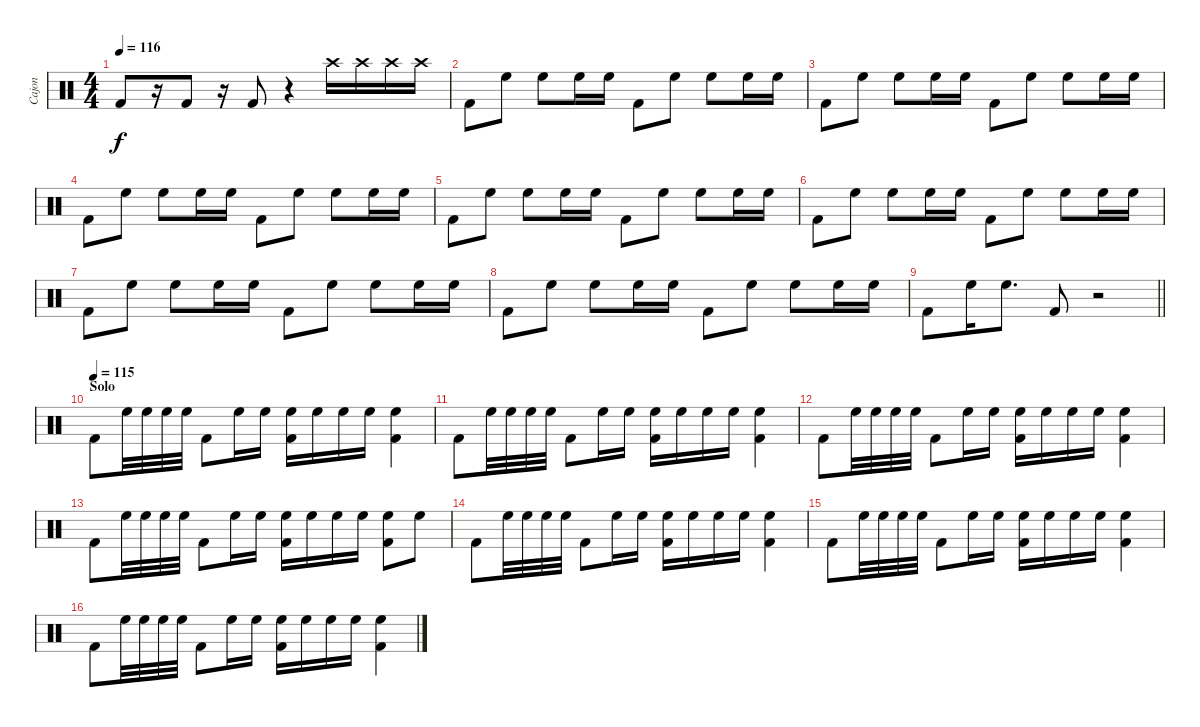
\track ("Cajon" "Cajon") {instrument percussion}
\staff {score}
\articulation defaults
\ts (4 4)
\tempo 116
\clef neutral
\ks c "Kick (hit) 2".8{dy f}
r.16 "Kick (hit) 2".8 r.16 "Kick (hit) 2".8 r.4{volume 0} "Crash high (hit)".16{volume 10} "Crash high (hit)".16 "Crash high (hit)".16 "Crash high (hit)".16 |
"Kick (hit) 2".8 "High Floor Tom (hit)".8 "High Floor Tom (hit)".8 "High Floor Tom (hit)".16 "High Floor Tom (hit)".16 "Kick (hit) 2".8 "High Floor Tom (hit)".8 "High Floor Tom (hit)".8 "High Floor Tom (hit)".16 "High Floor Tom (hit)".16 |
"Kick (hit) 2".8 "High Floor Tom (hit)".8 "High Floor Tom (hit)".8 "High Floor Tom (hit)".16 "High Floor Tom (hit)".16 "Kick (hit) 2".8 "High Floor Tom (hit)".8 "High Floor Tom (hit)".8 "High Floor Tom (hit)".16 "High Floor Tom (hit)".16 |
"Kick (hit) 2".8 "High Floor Tom (hit)".8 "High Floor Tom (hit)".8 "High Floor Tom (hit)".16 "High Floor Tom (hit)".16 "Kick (hit) 2".8 "High Floor Tom (hit)".8 "High Floor Tom (hit)".8 "High Floor Tom (hit)".16 "High Floor Tom (hit)".16 |
"Kick (hit) 2".8 "High Floor Tom (hit)".8 "High Floor Tom (hit)".8 "High Floor Tom (hit)".16 "High Floor Tom (hit)".16 "Kick (hit) 2".8 "High Floor Tom (hit)".8 "High Floor Tom (hit)".8 "High Floor Tom (hit)".16 "High Floor Tom (hit)".16 |
"Kick (hit) 2".8 "High Floor Tom (hit)".8 "High Floor Tom (hit)".8 "High Floor Tom (hit)".16 "High Floor Tom (hit)".16 "Kick (hit) 2".8 "High Floor Tom (hit)".8 "High Floor Tom (hit)".8 "High Floor Tom (hit)".16 "High Floor Tom (hit)".16 |
"Kick (hit) 2".8 "High Floor Tom (hit)".8 "High Floor Tom (hit)".8 "High Floor Tom (hit)".16 "High Floor Tom (hit)".16 "Kick (hit) 2".8 "High Floor Tom (hit)".8 "High Floor Tom (hit)".8 "High Floor Tom (hit)".16 "High Floor Tom (hit)".16 |
"Kick (hit) 2".8 "High Floor Tom (hit)".8 "High Floor Tom (hit)".8 "High Floor Tom (hit)".16 "High Floor Tom (hit)".16 "Kick (hit) 2".8 "High Floor Tom (hit)".8 "High Floor Tom (hit)".8 "High Floor Tom (hit)".16 "High Floor Tom (hit)".16 |
\barLineRight lightlight "Kick (hit) 2".8 "High Floor Tom (hit)".16 "High Floor Tom (hit)".8{d} "Kick (hit) 2".8
r.2 |
\section ("" "Solo")
\tempo (115)
"Kick (hit) 2".8 "High Floor Tom (hit)".32 "High Floor Tom (hit)".32 "High Floor Tom (hit)".32 "High Floor Tom (hit)".32 "Kick (hit) 2".8 "High Floor Tom (hit)".16 "High Floor Tom (hit)".16 ("High Floor Tom (hit)" "Kick (hit) 2").16 "High Floor Tom (hit)".16 "High Floor Tom (hit)".16 "High Floor Tom (hit)".16 ("High Floor Tom (hit)" "Kick (hit) 2").4 |
"Kick (hit) 2".8 "High Floor Tom (hit)".32 "High Floor Tom (hit)".32 "High Floor Tom (hit)".32 "High Floor Tom (hit)".32 "Kick (hit) 2".8 "High Floor Tom (hit)".16 "High Floor Tom (hit)".16 ("High Floor Tom (hit)" "Kick (hit) 2").16 "High Floor Tom (hit)".16 "High Floor Tom (hit)".16 "High Floor Tom (hit)".16 ("High Floor Tom (hit)" "Kick (hit) 2").4 |
"Kick (hit) 2".8 "High Floor Tom (hit)".32 "High Floor Tom (hit)".32 "High Floor Tom (hit)".32 "High Floor Tom (hit)".32 "Kick (hit) 2".8 "High Floor Tom (hit)".16 "High Floor Tom (hit)".16 ("High Floor Tom (hit)" "Kick (hit) 2").16 "High Floor Tom (hit)".16 "High Floor Tom (hit)".16 "High Floor Tom (hit)".16 ("High Floor Tom (hit)" "Kick (hit) 2").4 |
"Kick (hit) 2".8 "High Floor Tom (hit)".32 "High Floor Tom (hit)".32 "High Floor Tom (hit)".32 "High Floor Tom (hit)".32 "Kick (hit) 2".8 "High Floor Tom (hit)".16 "High Floor Tom (hit)".16 ("High Floor Tom (hit)" "Kick (hit) 2").16 "High Floor Tom (hit)".16 "High Floor Tom (hit)".16 "High Floor Tom (hit)".16 ("High Floor Tom (hit)" "Kick (hit) 2").8 "High Floor Tom (hit)".8 |
"Kick (hit) 2".8 "High Floor Tom (hit)".32 "High Floor Tom (hit)".32 "High Floor Tom (hit)".32 "High Floor Tom (hit)".32 "Kick (hit) 2".8 "High Floor Tom (hit)".16 "High Floor Tom (hit)".16 ("High Floor Tom (hit)" "Kick (hit) 2").16 "High Floor Tom (hit)".16 "High Floor Tom (hit)".16 "High Floor Tom (hit)".16 ("High Floor Tom (hit)" "Kick (hit) 2").4 |
"Kick (hit) 2".8 "High Floor Tom (hit)".32 "High Floor Tom (hit)".32 "High Floor Tom (hit)".32 "High Floor Tom (hit)".32 "Kick (hit) 2".8 "High Floor Tom (hit)".16 "High Floor Tom (hit)".16 ("High Floor Tom (hit)" "Kick (hit) 2").16 "High Floor Tom (hit)".16 "High Floor Tom (hit)".16 "High Floor Tom (hit)".16 ("High Floor Tom (hit)" "Kick (hit) 2").4 |
"Kick (hit) 2".8 "High Floor Tom (hit)".32 "High Floor Tom (hit)".32 "High Floor Tom (hit)".32 "High Floor Tom (hit)".32 "Kick (hit) 2".8 "High Floor Tom (hit)".16 "High Floor Tom (hit)".16 ("High Floor Tom (hit)" "Kick (hit) 2").16 "High Floor Tom (hit)".16 "High Floor Tom (hit)".16 "High Floor Tom (hit)".16 ("High Floor Tom (hit)" "Kick (hit) 2").4
